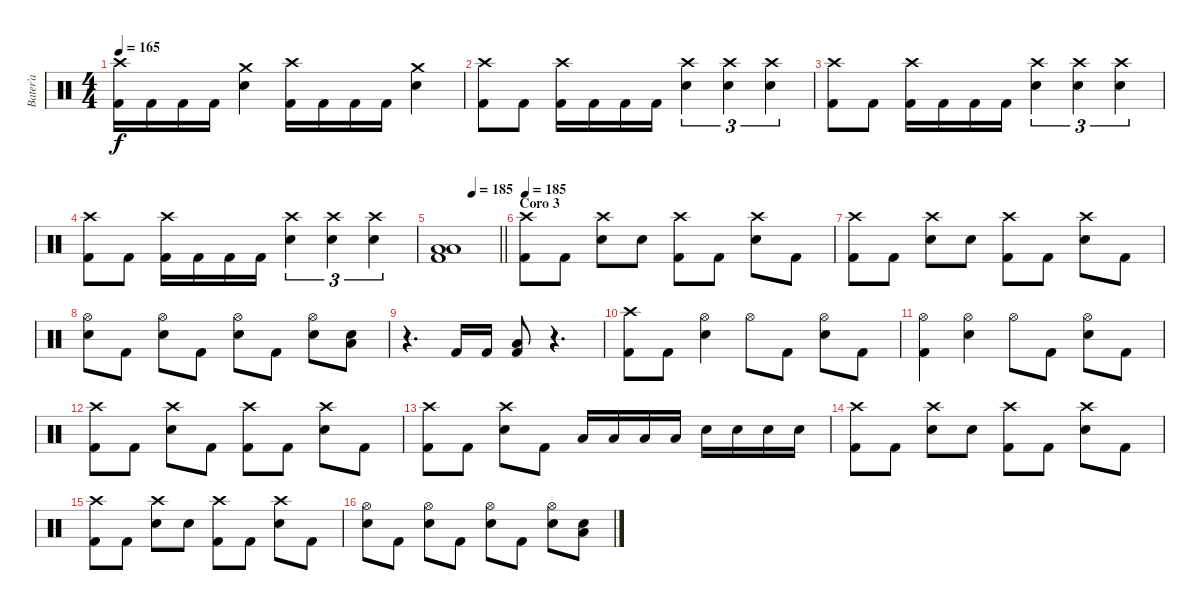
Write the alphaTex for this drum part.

\track ("Bater’a" "Bater’a") {instrument percussion}
\staff {score}
\articulation defaults
\ts (4 4)
\tempo 165
\clef neutral
\ks c
("Crash high (hit)" "Kick (hit) 2").16{dy f} "Kick (hit) 2".16 "Kick (hit) 2".16 "Kick (hit) 2".16 ("Crash medium (hit)" "Electric Snare (hit)").4 ("Crash high (hit)" "Kick (hit) 2").16 "Kick (hit) 2".16 "Kick (hit) 2".16 "Kick (hit) 2".16 ("Crash medium (hit)" "Electric Snare (hit)").4 |
("Crash high (hit)" "Kick (hit) 2").8 "Kick (hit) 2".8 ("Crash high (hit)" "Kick (hit) 2").16 "Kick (hit) 2".16 "Kick (hit) 2".16 "Kick (hit) 2".16 ("Crash high (hit)" "Electric Snare (hit)").4{tu (3 2)} ("Crash high (hit)" "Electric Snare (hit)").4{tu (3 2)} ("Crash high (hit)" "Electric Snare (hit)").4{tu (3 2)} |
("Crash high (hit)" "Kick (hit) 2").8 "Kick (hit) 2".8 ("Crash high (hit)" "Kick (hit) 2").16 "Kick (hit) 2".16 "Kick (hit) 2".16 "Kick (hit) 2".16 ("Crash high (hit)" "Electric Snare (hit)").4{tu (3 2)} ("Crash high (hit)" "Electric Snare (hit)").4{tu (3 2)} ("Crash high (hit)" "Electric Snare (hit)").4{tu (3 2)} |
("Crash high (hit)" "Kick (hit) 2").8 "Kick (hit) 2".8 ("Crash high (hit)" "Kick (hit) 2").16 "Kick (hit) 2".16 "Kick (hit) 2".16 "Kick (hit) 2".16 ("Crash high (hit)" "Electric Snare (hit)").4{tu (3 2)} ("Crash high (hit)" "Electric Snare (hit)").4{tu (3 2)} ("Crash high (hit)" "Electric Snare (hit)").4{tu (3 2)} |
\tempo (185 0.5)
\barLineRight lightlight
("Low Tom (hit)" "Low Floor Tom (hit)" "Kick (hit) 2").1 |
\section ("" "Coro 3")
\tempo 185
("Crash high (hit)" "Kick (hit) 2").8 "Kick (hit) 2".8 ("Crash high (hit)" "Electric Snare (hit)").8 "Electric Snare (hit)".8 ("Crash high (hit)" "Kick (hit) 2").8 "Kick (hit) 2".8 ("Crash high (hit)" "Electric Snare (hit)").8 "Kick (hit) 2".8 |
("Crash high (hit)" "Kick (hit) 2").8 "Kick (hit) 2".8 ("Crash high (hit)" "Electric Snare (hit)").8 "Electric Snare (hit)".8 ("Crash high (hit)" "Kick (hit) 2").8 "Kick (hit) 2".8 ("Crash high (hit)" "Electric Snare (hit)").8 "Kick (hit) 2".8 |
("Hi-Hat (open)" "Electric Snare (hit)").8 "Kick (hit) 2".8 ("Hi-Hat (open)" "Electric Snare (hit)").8 "Kick (hit) 2".8 ("Hi-Hat (open)" "Electric Snare (hit)").8 "Kick (hit) 2".8 ("Hi-Hat (open)" "Electric Snare (hit)").8 ("Low Floor Tom (hit)" "Electric Snare (hit)").8 |
r.4{d} "Kick (hit) 2".16 "Kick (hit) 2".16 ("Low Floor Tom (hit)" "Kick (hit) 2").8 r.4{d} |
("Crash high (hit)" "Kick (hit) 2").8 "Kick (hit) 2".8 ("Hi-Hat (open)" "Electric Snare (hit)").4 "Hi-Hat (open)".8 "Kick (hit) 2".8 ("Hi-Hat (open)" "Electric Snare (hit)").8 "Kick (hit) 2".8 |
("Hi-Hat (open)" "Kick (hit) 2").4 ("Hi-Hat (open)" "Electric Snare (hit)").4 "Hi-Hat (open)".8 "Kick (hit) 2".8 ("Hi-Hat (open)" "Electric Snare (hit)").8 "Kick (hit) 2".8 |
("Crash high (hit)" "Kick (hit) 2").8 "Kick (hit) 2".8 ("Crash high (hit)" "Electric Snare (hit)").8 "Kick (hit) 2".8 ("Crash high (hit)" "Kick (hit) 2").8 "Kick (hit) 2".8 ("Crash high (hit)" "Electric Snare (hit)").8 "Kick (hit) 2".8 |
("Crash high (hit)" "Kick (hit) 2").8 "Kick (hit) 2".8 ("Crash high (hit)" "Electric Snare (hit)").8 "Kick (hit) 2".8 "Low Tom (hit)".16 "Low Tom (hit)".16 "Low Tom (hit)".16 "Low Tom (hit)".16 "Electric Snare (hit)".16 "Electric Snare (hit)".16 "Electric Snare (hit)".16 "Electric Snare (hit)".16 |
("Crash high (hit)" "Kick (hit) 2").8 "Kick (hit) 2".8 ("Crash high (hit)" "Electric Snare (hit)").8 "Electric Snare (hit)".8 ("Crash high (hit)" "Kick (hit) 2").8 "Kick (hit) 2".8 ("Crash high (hit)" "Electric Snare (hit)").8 "Kick (hit) 2".8 |
("Crash high (hit)" "Kick (hit) 2").8 "Kick (hit) 2".8 ("Crash high (hit)" "Electric Snare (hit)").8 "Electric Snare (hit)".8 ("Crash high (hit)" "Kick (hit) 2").8 "Kick (hit) 2".8 ("Crash high (hit)" "Electric Snare (hit)").8 "Kick (hit) 2".8 |
("Hi-Hat (open)" "Electric Snare (hit)").8 "Kick (hit) 2".8 ("Hi-Hat (open)" "Electric Snare (hit)").8 "Kick (hit) 2".8 ("Hi-Hat (open)" "Electric Snare (hit)").8 "Kick (hit) 2".8 ("Hi-Hat (open)" "Electric Snare (hit)").8 ("Low Floor Tom (hit)" "Electric Snare (hit)").8
